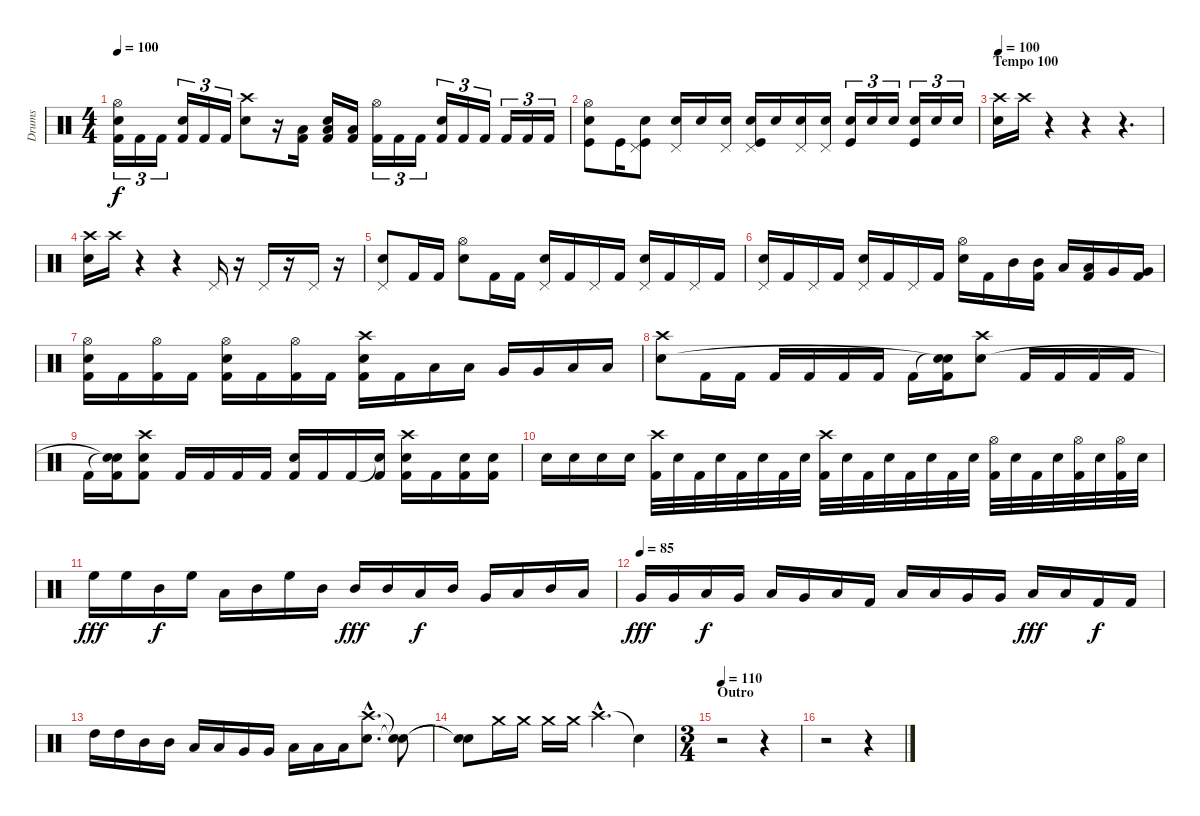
\track ("Drums" "Drums") {instrument percussion}
\staff {score}
\articulation defaults
\ts (4 4)
\tempo 100
\clef neutral
\ks c
("Hi-Hat (open)" "Snare (hit) 2" "Kick (hit) 2").16{tu (3 2) dy f} "Kick (hit) 2".16{tu (3 2)} "Kick (hit) 2".16{tu (3 2)} ("Snare (hit) 2" "Kick (hit) 2").16{tu (3 2)} "Kick (hit) 2".16{tu (3 2)} "Kick (hit) 2".16{tu (3 2)} ("Crash high (hit)" "Snare (hit) 2").8 r.16 ("Low Tom (hit)" "Kick (hit) 2").16 ("Low Tom (hit)" "Snare (hit) 2" "Kick (hit) 2").16 ("Low Tom (hit)" "Kick (hit) 2").16 ("Hi-Hat (open)" "Kick (hit) 2").16{tu (3 2)} "Kick (hit) 2".16{tu (3 2)} "Kick (hit) 2".16{tu (3 2)} ("Snare (hit) 2" "Kick (hit) 2").16{tu (3 2)} "Kick (hit) 2".16{tu (3 2)} "Kick (hit) 2".16{tu (3 2)} "Kick (hit) 2".16{tu (3 2)} "Kick (hit) 2".16{tu (3 2)} "Kick (hit) 2".16{tu (3 2)} |
("Hi-Hat (open)" "Snare (hit) 2" "Kick (hit)").8 "Kick (hit)".16 ("Pedal Hi-Hat (hit)" "Snare (hit) 2" "Kick (hit)").8 ("Pedal Hi-Hat (hit)" "Snare (hit) 2").16 "Snare (hit) 2".16 ("Pedal Hi-Hat (hit)" "Snare (hit) 2").16 ("Pedal Hi-Hat (hit)" "Snare (hit) 2" "Kick (hit)").16 "Snare (hit) 2".16 ("Pedal Hi-Hat (hit)" "Snare (hit) 2").16 ("Pedal Hi-Hat (hit)" "Snare (hit) 2").16 ("Snare (hit) 2" "Kick (hit)").16{tu (3 2)} "Snare (hit) 2".16{tu (3 2)} "Snare (hit) 2".16{tu (3 2)} ("Snare (hit) 2" "Kick (hit)").16{tu (3 2)} "Snare (hit) 2".16{tu (3 2)} "Snare (hit) 2".16{tu (3 2)} |
\section ("" "Tempo 100")
\tempo 100
("Crash high (hit)" "Snare (hit) 2").16 "Crash high (hit)".16 r.4 r.4 r.4{d} |
("Crash high (hit)" "Snare (hit) 2").16 "Crash high (hit)".16 r.4 r.4 "Pedal Hi-Hat (hit)".16 r.16 "Pedal Hi-Hat (hit)".16 r.16 "Pedal Hi-Hat (hit)".16 r.16 |
("Pedal Hi-Hat (hit)" "Snare (hit) 2").8 "Kick (hit) 2".16 "Kick (hit) 2".16 ("Hi-Hat (open)" "Snare (hit) 2").8 "Kick (hit) 2".16 "Kick (hit) 2".16 ("Pedal Hi-Hat (hit)" "Snare (hit) 2").16 "Kick (hit) 2".16 "Pedal Hi-Hat (hit)".16 "Kick (hit) 2".16 ("Pedal Hi-Hat (hit)" "Snare (hit) 2").16 "Kick (hit) 2".16 "Pedal Hi-Hat (hit)".16 "Kick (hit) 2".16 |
("Pedal Hi-Hat (hit)" "Snare (hit) 2").16 "Kick (hit) 2".16 "Pedal Hi-Hat (hit)".16 "Kick (hit) 2".16 ("Pedal Hi-Hat (hit)" "Snare (hit) 2").16 "Kick (hit) 2".16 "Pedal Hi-Hat (hit)".16 "Kick (hit) 2".16 ("Hi-Hat (open)" "Snare (hit) 2").16 "Kick (hit) 2".16 "Mid Tom (hit)".16 ("Mid Tom (hit)" "Kick (hit) 2").16 "Low Tom (hit)".16 ("Low Tom (hit)" "Kick (hit) 2").16 "Very Low Tom (hit)".16 ("Very Low Tom (hit)" "Kick (hit) 2").16 |
("Hi-Hat (open)" "Snare (hit) 2" "Kick (hit) 2").16 "Kick (hit) 2".16 ("Hi-Hat (open)" "Kick (hit) 2").16 "Kick (hit) 2".16 ("Hi-Hat (open)" "Snare (hit) 2" "Kick (hit) 2").16 "Kick (hit) 2".16 ("Hi-Hat (open)" "Kick (hit) 2").16 "Kick (hit) 2".16 ("Crash high (hit)" "Snare (hit) 2" "Kick (hit) 2").16 "Kick (hit) 2".16 "Low Tom (hit)".16 "Low Tom (hit)".16 "Very Low Tom (hit)".16 "Very Low Tom (hit)".16 "Low Floor Tom (hit)".16 "Low Floor Tom (hit)".16 |
("Crash high (hit)" "Snare (hit) 2").8 "Kick (hit) 2".16 "Kick (hit) 2".16 "Kick (hit) 2".16 "Kick (hit) 2".16 "Kick (hit) 2".16 "Kick (hit) 2".16 "Kick (hit) 2".16 ("Snare (hit)"{t} "Snare (hit)"{t} "Kick (hit) 2").16 ("Crash high (hit)" "Snare (hit) 2").8 "Kick (hit) 2".16 "Kick (hit) 2".16 "Kick (hit) 2".16 "Kick (hit) 2".16 |
"Kick (hit) 2".16 ("Snare (hit)"{t} "Snare (hit)"{t} "Kick (hit) 2").16 ("Crash high (hit)" "Snare (hit) 2" "Kick (hit) 2").8 "Kick (hit) 2".16 "Kick (hit) 2".16 "Kick (hit) 2".16 "Kick (hit) 2".16 ("Snare (hit) 2" "Kick (hit) 2").16 "Kick (hit) 2".16 "Kick (hit) 2".16 ("Snare (hit)"{t} "Kick (hit) 2").16 ("Crash high (hit)" "Snare (hit) 2" "Kick (hit) 2").16 "Kick (hit) 2".16 ("Snare (hit) 2" "Kick (hit) 2").16 ("Snare (hit) 2" "Kick (hit) 2").16 |
"Snare (hit) 2".16 "Snare (hit) 2".16 "Snare (hit) 2".16 "Snare (hit) 2".16 ("Crash high (hit)" "Kick (hit) 2").32 "Snare (hit) 2".32 "Kick (hit) 2".32 "Snare (hit) 2".32 "Kick (hit) 2".32 "Snare (hit) 2".32 "Kick (hit) 2".32 "Snare (hit) 2".32 ("Crash high (hit)" "Kick (hit) 2").32 "Snare (hit) 2".32 "Kick (hit) 2".32 "Snare (hit) 2".32 "Kick (hit) 2".32 "Snare (hit) 2".32 "Kick (hit) 2".32 "Snare (hit) 2".32 ("Hi-Hat (open)" "Kick (hit) 2").32 "Snare (hit) 2".32 "Kick (hit) 2".32 "Snare (hit) 2".32 ("Hi-Hat (open)" "Kick (hit) 2").32 "Snare (hit) 2".32 ("Hi-Hat (open)" "Kick (hit) 2").32 "Snare (hit) 2".32 |
"High Floor Tom (hit)".16{dy fff} "High Floor Tom (hit)".16 "Mid Tom (hit)".16{dy f} "High Floor Tom (hit)".16 "Low Tom (hit)".16 "Mid Tom (hit)".16 "High Floor Tom (hit)".16 "Mid Tom (hit)".16 "Mid Tom (hit)".16{dy fff} "Mid Tom (hit)".16 "Low Tom (hit)".16{dy f} "Mid Tom (hit)".16 "Very Low Tom (hit)".16 "Low Tom (hit)".16 "Mid Tom (hit)".16 "Low Tom (hit)".16 |
\tempo (85)
"Very Low Tom (hit)".16{dy fff} "Very Low Tom (hit)".16 "Low Floor Tom (hit)".16{dy f} "Very Low Tom (hit)".16 "Low Tom (hit)".16 "Very Low Tom (hit)".16 "Low Floor Tom (hit)".16 "Kick (hit) 2".16 "Low Tom (hit)".16 "Low Tom (hit)".16 "Very Low Tom (hit)".16 "Very Low Tom (hit)".16 "Low Floor Tom (hit)".16{dy fff} "Low Floor Tom (hit)".16 "Kick (hit) 2".16{dy f} "Kick (hit) 2".16 |
"High Tom (hit)".16 "High Tom (hit)".16 "Mid Tom (hit)".16 "Mid Tom (hit)".16 "Low Tom (hit)".16 "Low Tom (hit)".16 "Very Low Tom (hit)".16 "Very Low Tom (hit)".16 "Low Floor Tom (hit)".16 "Low Floor Tom (hit)".16 "Low Floor Tom (hit)".16 ("Crash high (hit)"{hac} "Snare (hit) 2"{hac}).8{d} ("Snare (hit)"{t} "Snare (hit)"{t}).8 |
("Snare (hit)"{t} "Snare (hit)"{t}).8 "Crash medium (hit)".16 "Crash medium (hit)".16 "Crash medium (hit)".16 "Crash medium (hit)".16 "Crash high (hit)"{hac}.4{d} "Snare (hit)"{t}.4 |
\ts (3 4)
\section ("" "Outro")
\tempo 110
r.2 r.4 |
r.2 r.4
